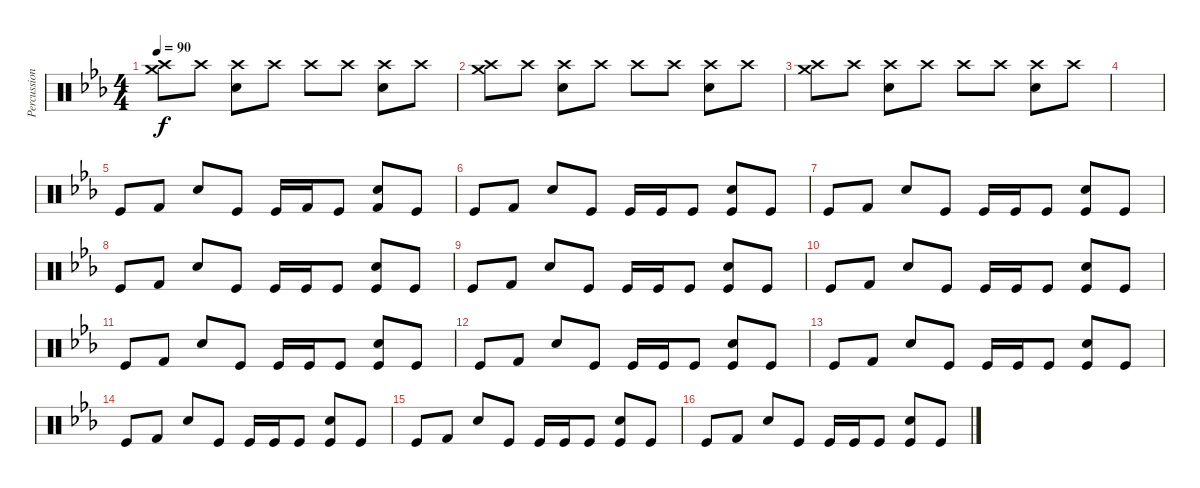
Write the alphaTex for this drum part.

\track ("Percussion" "Percussion") {instrument percussion}
\staff {score}
\articulation defaults
\ts (4 4)
\tempo 90
\clef neutral
\ks cminor
("Crash medium (hit)" "Crash high (hit)").8{dy f} "Crash high (hit)".8 ("Electric Snare (hit)" "Crash high (hit)").8 "Crash high (hit)".8 "Crash high (hit)".8 "Crash high (hit)".8 ("Electric Snare (hit)" "Crash high (hit)").8 "Crash high (hit)".8 |
("Crash medium (hit)" "Crash high (hit)").8 "Crash high (hit)".8 ("Electric Snare (hit)" "Crash high (hit)").8 "Crash high (hit)".8 "Crash high (hit)".8 "Crash high (hit)".8 ("Electric Snare (hit)" "Crash high (hit)").8 "Crash high (hit)".8 |
("Crash medium (hit)" "Crash high (hit)").8 "Crash high (hit)".8 ("Electric Snare (hit)" "Crash high (hit)").8 "Crash high (hit)".8 "Crash high (hit)".8 "Crash high (hit)".8 ("Electric Snare (hit)" "Crash high (hit)").8 "Crash high (hit)".8 |
|
"Kick (hit)".8 "Kick (hit) 2".8 "Electric Snare (hit)".8 "Kick (hit)".8 "Kick (hit)".16 "Kick (hit) 2".16 "Kick (hit)".8 ("Electric Snare (hit)" "Kick (hit) 2").8 "Kick (hit)".8 |
"Kick (hit)".8 "Kick (hit) 2".8 "Electric Snare (hit)".8 "Kick (hit)".8 "Kick (hit)".16 "Kick (hit)".16 "Kick (hit)".8 ("Electric Snare (hit)" "Kick (hit)").8 "Kick (hit)".8 |
"Kick (hit)".8 "Kick (hit) 2".8 "Electric Snare (hit)".8 "Kick (hit)".8 "Kick (hit)".16 "Kick (hit)".16 "Kick (hit)".8 ("Electric Snare (hit)" "Kick (hit)").8 "Kick (hit)".8 |
"Kick (hit)".8 "Kick (hit) 2".8 "Electric Snare (hit)".8 "Kick (hit)".8 "Kick (hit)".16 "Kick (hit)".16 "Kick (hit)".8 ("Electric Snare (hit)" "Kick (hit)").8 "Kick (hit)".8 |
"Kick (hit)".8 "Kick (hit) 2".8 "Electric Snare (hit)".8 "Kick (hit)".8 "Kick (hit)".16 "Kick (hit)".16 "Kick (hit)".8 ("Electric Snare (hit)" "Kick (hit)").8 "Kick (hit)".8 |
"Kick (hit)".8 "Kick (hit) 2".8 "Electric Snare (hit)".8 "Kick (hit)".8 "Kick (hit)".16 "Kick (hit)".16 "Kick (hit)".8 ("Electric Snare (hit)" "Kick (hit)").8 "Kick (hit)".8 |
"Kick (hit)".8 "Kick (hit) 2".8 "Electric Snare (hit)".8 "Kick (hit)".8 "Kick (hit)".16 "Kick (hit)".16 "Kick (hit)".8 ("Electric Snare (hit)" "Kick (hit)").8 "Kick (hit)".8 |
"Kick (hit)".8 "Kick (hit) 2".8 "Electric Snare (hit)".8 "Kick (hit)".8 "Kick (hit)".16 "Kick (hit)".16 "Kick (hit)".8 ("Electric Snare (hit)" "Kick (hit)").8 "Kick (hit)".8 |
"Kick (hit)".8 "Kick (hit) 2".8 "Electric Snare (hit)".8 "Kick (hit)".8 "Kick (hit)".16 "Kick (hit)".16 "Kick (hit)".8 ("Electric Snare (hit)" "Kick (hit)").8 "Kick (hit)".8 |
"Kick (hit)".8 "Kick (hit) 2".8 "Electric Snare (hit)".8 "Kick (hit)".8 "Kick (hit)".16 "Kick (hit)".16 "Kick (hit)".8 ("Electric Snare (hit)" "Kick (hit)").8 "Kick (hit)".8 |
"Kick (hit)".8 "Kick (hit) 2".8 "Electric Snare (hit)".8 "Kick (hit)".8 "Kick (hit)".16 "Kick (hit)".16 "Kick (hit)".8 ("Electric Snare (hit)" "Kick (hit)").8 "Kick (hit)".8 |
"Kick (hit)".8 "Kick (hit) 2".8 "Electric Snare (hit)".8 "Kick (hit)".8 "Kick (hit)".16 "Kick (hit)".16 "Kick (hit)".8 ("Electric Snare (hit)" "Kick (hit)").8 "Kick (hit)".8
